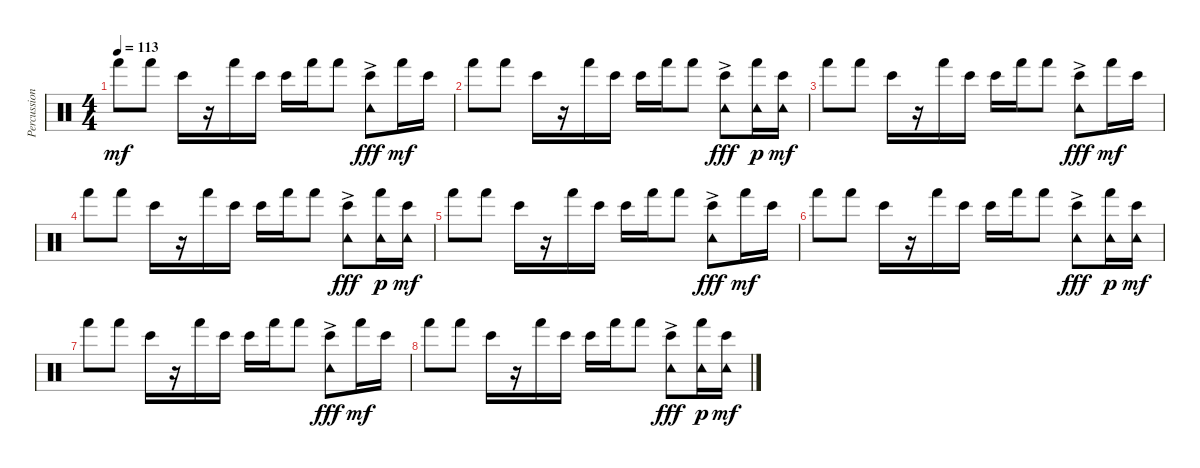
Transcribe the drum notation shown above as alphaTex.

\track ("Percussion" "Percussion") {instrument percussion}
\staff {score}
\articulation defaults
\ts (4 4)
\tempo 113
\clef neutral
\ks c "Hand (hit)".8{dy mf} "Hand (hit)".8 "Bongo High (hit)".16
r.16 "Hand (hit)".16 "Bongo High (hit)".16 "Bongo High (hit)".16 "Hand (hit)".16 "Hand (hit)".8 ("Bongo High (hit)" "Tambourine (hit)"{ac}).8{dy fff} "Hand (hit)".16{dy mf} "Bongo High (hit)".16 |
"Hand (hit)".8 "Hand (hit)".8 "Bongo High (hit)".16 r.16 "Hand (hit)".16 "Bongo High (hit)".16 "Bongo High (hit)".16 "Hand (hit)".16 "Hand (hit)".8 ("Bongo High (hit)" "Tambourine (hit)"{ac}).8{dy fff} ("Hand (hit)" "Tambourine (hit)").16{dy p} ("Bongo High (hit)" "Tambourine (hit)").16{dy mf} |
"Hand (hit)".8 "Hand (hit)".8 "Bongo High (hit)".16 r.16 "Hand (hit)".16 "Bongo High (hit)".16 "Bongo High (hit)".16 "Hand (hit)".16 "Hand (hit)".8 ("Bongo High (hit)" "Tambourine (hit)"{ac}).8{dy fff} "Hand (hit)".16{dy mf} "Bongo High (hit)".16 |
"Hand (hit)".8 "Hand (hit)".8 "Bongo High (hit)".16 r.16 "Hand (hit)".16 "Bongo High (hit)".16 "Bongo High (hit)".16 "Hand (hit)".16 "Hand (hit)".8 ("Bongo High (hit)" "Tambourine (hit)"{ac}).8{dy fff} ("Hand (hit)" "Tambourine (hit)").16{dy p} ("Bongo High (hit)" "Tambourine (hit)").16{dy mf} |
"Hand (hit)".8 "Hand (hit)".8 "Bongo High (hit)".16 r.16 "Hand (hit)".16 "Bongo High (hit)".16 "Bongo High (hit)".16 "Hand (hit)".16 "Hand (hit)".8 ("Bongo High (hit)" "Tambourine (hit)"{ac}).8{dy fff} "Hand (hit)".16{dy mf} "Bongo High (hit)".16 |
"Hand (hit)".8 "Hand (hit)".8 "Bongo High (hit)".16 r.16 "Hand (hit)".16 "Bongo High (hit)".16 "Bongo High (hit)".16 "Hand (hit)".16 "Hand (hit)".8 ("Bongo High (hit)" "Tambourine (hit)"{ac}).8{dy fff} ("Hand (hit)" "Tambourine (hit)").16{dy p} ("Bongo High (hit)" "Tambourine (hit)").16{dy mf} |
"Hand (hit)".8 "Hand (hit)".8 "Bongo High (hit)".16 r.16 "Hand (hit)".16 "Bongo High (hit)".16 "Bongo High (hit)".16 "Hand (hit)".16 "Hand (hit)".8 ("Bongo High (hit)" "Tambourine (hit)"{ac}).8{dy fff} "Hand (hit)".16{dy mf} "Bongo High (hit)".16 |
"Hand (hit)".8 "Hand (hit)".8 "Bongo High (hit)".16 r.16 "Hand (hit)".16 "Bongo High (hit)".16 "Bongo High (hit)".16 "Hand (hit)".16 "Hand (hit)".8 ("Bongo High (hit)" "Tambourine (hit)"{ac}).8{dy fff} ("Hand (hit)" "Tambourine (hit)").16{dy p} ("Bongo High (hit)" "Tambourine (hit)").16{dy mf}
